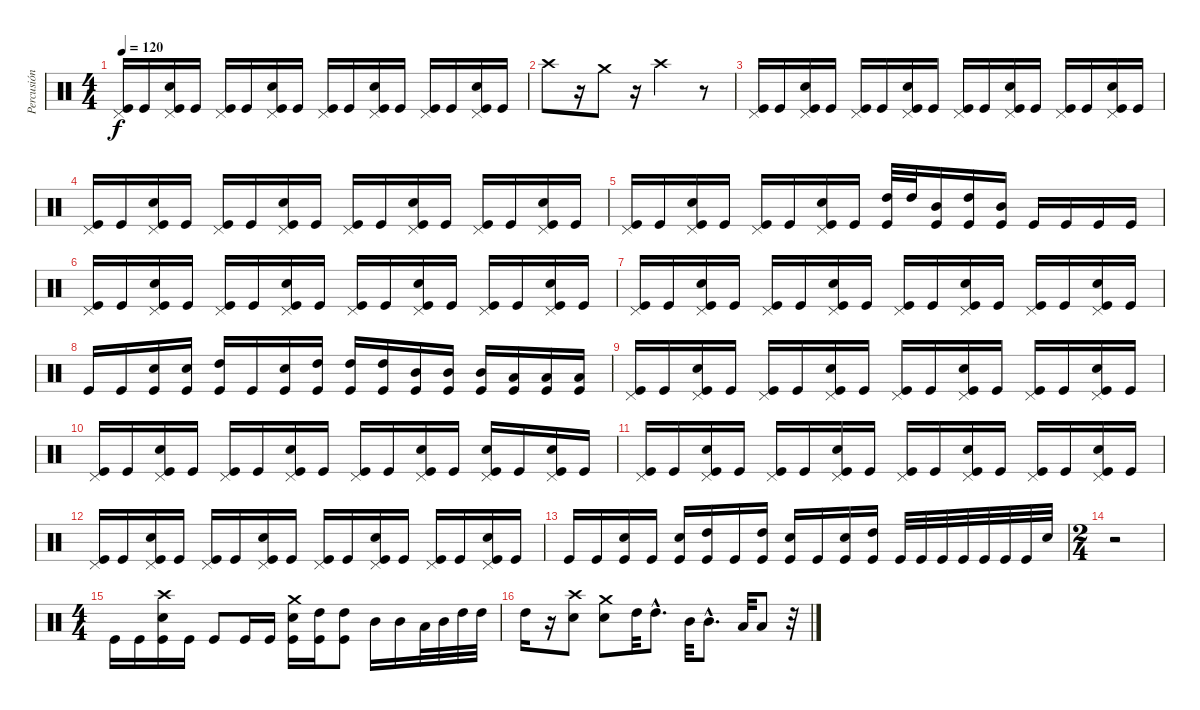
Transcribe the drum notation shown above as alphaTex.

\track ("Percusión" "Percusión") {instrument percussion}
\staff {score}
\articulation defaults
\ts (4 4)
\tempo 120
\clef neutral
\ks c
("Pedal Hi-Hat (hit)" "Kick (hit)").16{dy f} "Kick (hit)".16 ("Pedal Hi-Hat (hit)" "Snare (hit) 2" "Kick (hit)").16 "Kick (hit)".16 ("Pedal Hi-Hat (hit)" "Kick (hit)").16 "Kick (hit)".16 ("Pedal Hi-Hat (hit)" "Snare (hit) 2" "Kick (hit)").16 "Kick (hit)".16 ("Pedal Hi-Hat (hit)" "Kick (hit)").16 "Kick (hit)".16 ("Pedal Hi-Hat (hit)" "Snare (hit) 2" "Kick (hit)").16 "Kick (hit)".16 ("Pedal Hi-Hat (hit)" "Kick (hit)").16 "Kick (hit)".16 ("Pedal Hi-Hat (hit)" "Snare (hit) 2" "Kick (hit)").16 "Kick (hit)".16 |
"Crash high (hit)".8 r.16 "Crash medium (hit)".8 r.16 "Crash high (hit)".2 r.8 |
("Pedal Hi-Hat (hit)" "Kick (hit)").16 "Kick (hit)".16 ("Pedal Hi-Hat (hit)" "Snare (hit) 2" "Kick (hit)").16 "Kick (hit)".16 ("Pedal Hi-Hat (hit)" "Kick (hit)").16 "Kick (hit)".16 ("Pedal Hi-Hat (hit)" "Snare (hit) 2" "Kick (hit)").16 "Kick (hit)".16 ("Pedal Hi-Hat (hit)" "Kick (hit)").16 "Kick (hit)".16 ("Pedal Hi-Hat (hit)" "Snare (hit) 2" "Kick (hit)").16 "Kick (hit)".16 ("Pedal Hi-Hat (hit)" "Kick (hit)").16 "Kick (hit)".16 ("Pedal Hi-Hat (hit)" "Snare (hit) 2" "Kick (hit)").16 "Kick (hit)".16 |
("Pedal Hi-Hat (hit)" "Kick (hit)").16 "Kick (hit)".16 ("Pedal Hi-Hat (hit)" "Snare (hit) 2" "Kick (hit)").16 "Kick (hit)".16 ("Pedal Hi-Hat (hit)" "Kick (hit)").16 "Kick (hit)".16 ("Pedal Hi-Hat (hit)" "Snare (hit) 2" "Kick (hit)").16 "Kick (hit)".16 ("Pedal Hi-Hat (hit)" "Kick (hit)").16 "Kick (hit)".16 ("Pedal Hi-Hat (hit)" "Snare (hit) 2" "Kick (hit)").16 "Kick (hit)".16 ("Pedal Hi-Hat (hit)" "Kick (hit)").16 "Kick (hit)".16 ("Pedal Hi-Hat (hit)" "Snare (hit) 2" "Kick (hit)").16 "Kick (hit)".16 |
("Pedal Hi-Hat (hit)" "Kick (hit)").16 "Kick (hit)".16 ("Pedal Hi-Hat (hit)" "Snare (hit) 2" "Kick (hit)").16 "Kick (hit)".16 ("Pedal Hi-Hat (hit)" "Kick (hit)").16 "Kick (hit)".16 ("Pedal Hi-Hat (hit)" "Snare (hit) 2" "Kick (hit)").16 "Kick (hit)".16 ("High Tom (hit)" "Kick (hit)").32 "High Tom (hit)".32 ("Mid Tom (hit)" "Kick (hit)").16 ("High Tom (hit)" "Kick (hit)").16 ("Mid Tom (hit)" "Kick (hit)").16 "Kick (hit)".16 "Kick (hit)".16 "Kick (hit)".16 "Kick (hit)".16 |
("Pedal Hi-Hat (hit)" "Kick (hit)").16 "Kick (hit)".16 ("Pedal Hi-Hat (hit)" "Snare (hit) 2" "Kick (hit)").16 "Kick (hit)".16 ("Pedal Hi-Hat (hit)" "Kick (hit)").16 "Kick (hit)".16 ("Pedal Hi-Hat (hit)" "Snare (hit) 2" "Kick (hit)").16 "Kick (hit)".16 ("Pedal Hi-Hat (hit)" "Kick (hit)").16 "Kick (hit)".16 ("Pedal Hi-Hat (hit)" "Snare (hit) 2" "Kick (hit)").16 "Kick (hit)".16 ("Pedal Hi-Hat (hit)" "Kick (hit)").16 "Kick (hit)".16 ("Pedal Hi-Hat (hit)" "Snare (hit) 2" "Kick (hit)").16 "Kick (hit)".16 |
("Pedal Hi-Hat (hit)" "Kick (hit)").16 "Kick (hit)".16 ("Pedal Hi-Hat (hit)" "Snare (hit) 2" "Kick (hit)").16 "Kick (hit)".16 ("Pedal Hi-Hat (hit)" "Kick (hit)").16 "Kick (hit)".16 ("Pedal Hi-Hat (hit)" "Snare (hit) 2" "Kick (hit)").16 "Kick (hit)".16 ("Pedal Hi-Hat (hit)" "Kick (hit)").16 "Kick (hit)".16 ("Pedal Hi-Hat (hit)" "Snare (hit) 2" "Kick (hit)").16 "Kick (hit)".16 ("Pedal Hi-Hat (hit)" "Kick (hit)").16 "Kick (hit)".16 ("Pedal Hi-Hat (hit)" "Snare (hit) 2" "Kick (hit)").16 "Kick (hit)".16 |
"Kick (hit)".16 "Kick (hit)".16 ("Snare (hit) 2" "Kick (hit)").16 ("Snare (hit) 2" "Kick (hit)").16 ("High Tom (hit)" "Kick (hit)").16 "Kick (hit)".16 ("Snare (hit) 2" "Kick (hit)").16 ("High Tom (hit)" "Kick (hit)").16 ("High Tom (hit)" "Kick (hit)").16 ("High Tom (hit)" "Kick (hit)").16 ("Mid Tom (hit)" "Kick (hit)").16 ("Mid Tom (hit)" "Kick (hit)").16 ("Mid Tom (hit)" "Kick (hit)").16 ("Low Tom (hit)" "Kick (hit)").16 ("Low Tom (hit)" "Kick (hit)").16 ("Low Tom (hit)" "Kick (hit)").16 |
("Pedal Hi-Hat (hit)" "Kick (hit)").16 "Kick (hit)".16 ("Pedal Hi-Hat (hit)" "Snare (hit) 2" "Kick (hit)").16 "Kick (hit)".16 ("Pedal Hi-Hat (hit)" "Kick (hit)").16 "Kick (hit)".16 ("Pedal Hi-Hat (hit)" "Snare (hit) 2" "Kick (hit)").16 "Kick (hit)".16 ("Pedal Hi-Hat (hit)" "Kick (hit)").16 "Kick (hit)".16 ("Pedal Hi-Hat (hit)" "Snare (hit) 2" "Kick (hit)").16 "Kick (hit)".16 ("Pedal Hi-Hat (hit)" "Kick (hit)").16 "Kick (hit)".16 ("Pedal Hi-Hat (hit)" "Snare (hit) 2" "Kick (hit)").16 "Kick (hit)".16 |
("Pedal Hi-Hat (hit)" "Kick (hit)").16 "Kick (hit)".16 ("Pedal Hi-Hat (hit)" "Snare (hit) 2" "Kick (hit)").16 "Kick (hit)".16 ("Pedal Hi-Hat (hit)" "Kick (hit)").16 "Kick (hit)".16 ("Pedal Hi-Hat (hit)" "Snare (hit) 2" "Kick (hit)").16 "Kick (hit)".16 ("Pedal Hi-Hat (hit)" "Kick (hit)").16 "Kick (hit)".16 ("Pedal Hi-Hat (hit)" "Snare (hit) 2" "Kick (hit)").16 "Kick (hit)".16 ("Pedal Hi-Hat (hit)" "Snare (hit) 2" "Kick (hit)").16 "Kick (hit)".16 ("Pedal Hi-Hat (hit)" "Snare (hit) 2" "Kick (hit)").16 "Kick (hit)".16 |
("Pedal Hi-Hat (hit)" "Kick (hit)").16 "Kick (hit)".16 ("Pedal Hi-Hat (hit)" "Snare (hit) 2" "Kick (hit)").16 "Kick (hit)".16 ("Pedal Hi-Hat (hit)" "Kick (hit)").16 "Kick (hit)".16 ("Pedal Hi-Hat (hit)" "Snare (hit) 2" "Kick (hit)").16 "Kick (hit)".16 ("Pedal Hi-Hat (hit)" "Kick (hit)").16 "Kick (hit)".16 ("Pedal Hi-Hat (hit)" "Snare (hit) 2" "Kick (hit)").16 "Kick (hit)".16 ("Pedal Hi-Hat (hit)" "Kick (hit)").16 "Kick (hit)".16 ("Pedal Hi-Hat (hit)" "Snare (hit) 2" "Kick (hit)").16 "Kick (hit)".16 |
("Pedal Hi-Hat (hit)" "Kick (hit)").16 "Kick (hit)".16 ("Pedal Hi-Hat (hit)" "Snare (hit) 2" "Kick (hit)").16 "Kick (hit)".16 ("Pedal Hi-Hat (hit)" "Kick (hit)").16 "Kick (hit)".16 ("Pedal Hi-Hat (hit)" "Snare (hit) 2" "Kick (hit)").16 "Kick (hit)".16 ("Pedal Hi-Hat (hit)" "Kick (hit)").16 "Kick (hit)".16 ("Pedal Hi-Hat (hit)" "Snare (hit) 2" "Kick (hit)").16 "Kick (hit)".16 ("Pedal Hi-Hat (hit)" "Kick (hit)").16 "Kick (hit)".16 ("Pedal Hi-Hat (hit)" "Snare (hit) 2" "Kick (hit)").16 "Kick (hit)".16 |
"Kick (hit)".16 "Kick (hit)".16 ("Snare (hit) 2" "Kick (hit)").16 "Kick (hit)".16 ("Snare (hit) 2" "Kick (hit)").16 ("High Tom (hit)" "Kick (hit)").16 "Kick (hit)".16 ("High Tom (hit)" "Kick (hit)").16 ("Snare (hit) 2" "Kick (hit)").16 "Kick (hit)".16 ("Snare (hit) 2" "Kick (hit)").16 ("High Tom (hit)" "Kick (hit)").16 "Kick (hit)".32 "Kick (hit)".32 "Kick (hit)".32 "Kick (hit)".32 "Kick (hit)".32 "Kick (hit)".32 "Kick (hit)".32 "Snare (hit) 2".32 |
\ts (2 4)
r.2 |
\ts (4 4)
"Kick (hit)".16 "Kick (hit)".16 ("Crash high (hit)" "Snare (hit) 2" "Kick (hit)").16 "Kick (hit)".16 "Kick (hit)".8 "Kick (hit)".16 "Kick (hit)".16 ("Crash medium (hit)" "Snare (hit) 2" "Kick (hit)").16 ("High Tom (hit)" "Kick (hit)").16 ("High Tom (hit)" "Kick (hit)").8 "Mid Tom (hit)".16 "Mid Tom (hit)".16 "Low Tom (hit)".32 "Mid Tom (hit)".32 "High Tom (hit)".32 "High Tom (hit)".32 |
"High Tom (hit)".16 r.16 ("Crash high (hit)" "Snare (hit) 2").8 ("Crash medium (hit)" "Snare (hit) 2").8 "High Tom (hit)".32 "High Tom (hit)"{hac}.8{d} "Mid Tom (hit)".32 "Mid Tom (hit)"{hac}.8{d} "Low Tom (hit)".32 "Low Tom (hit)".8 r.32
